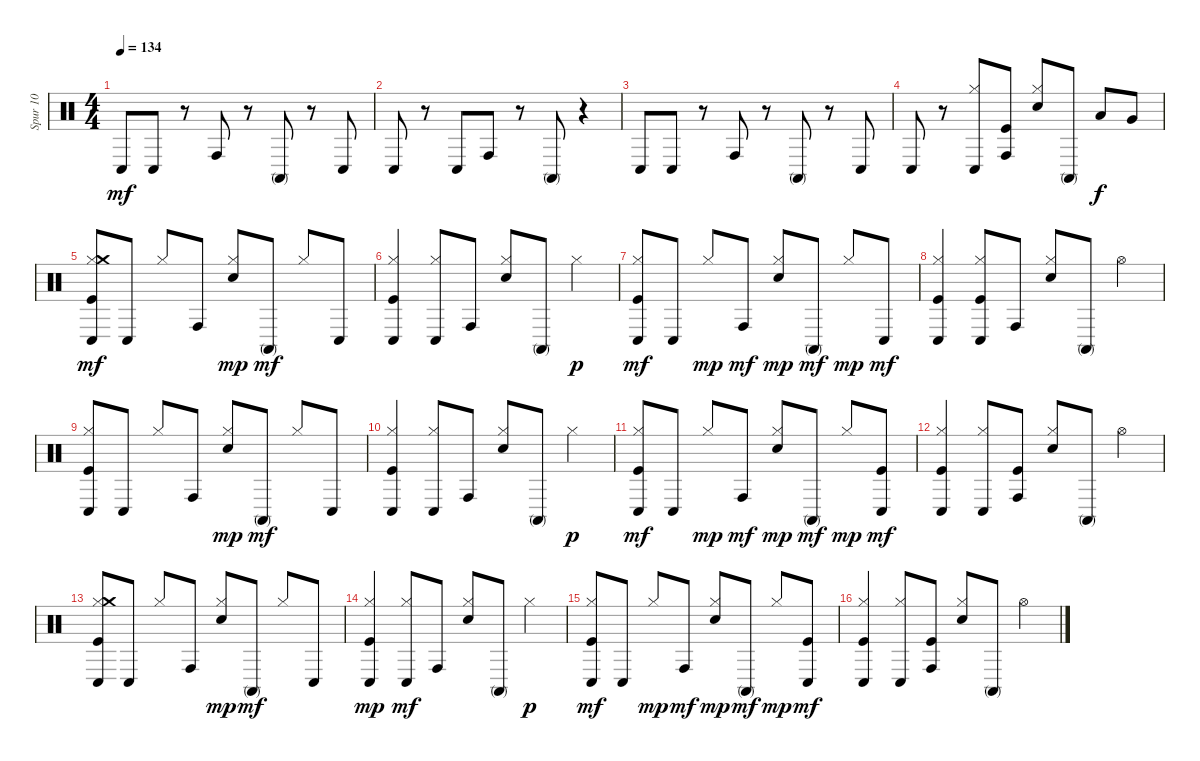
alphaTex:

\track ("Spur 10" "Spur 10") {instrument percussion}
\staff {score}
\articulation defaults
\ts (4 4)
\tempo 134
\clef neutral
\ks c "Conga low (hit)".8{dy mf} "Conga low (hit)".8
r.8 "Conga high (hit)".8 r.8 "Conga high (mute)".8 r.8 "Conga low (hit)".8 |
"Conga low (hit)".8 r.8 "Conga low (hit)".8 "Conga high (hit)".8 r.8 "Conga high (mute)".8 r.4 |
"Conga low (hit)".8 "Conga low (hit)".8 r.8 "Conga high (hit)".8 r.8 "Conga high (mute)".8 r.8 "Conga low (hit)".8 |
"Conga low (hit)".8 r.8 ("Conga low (hit)" "Hi-Hat (closed)").8 ("Conga high (hit)" "Kick (hit)").8 ("Hi-Hat (closed)" "Electric Snare (hit)").8 "Conga high (mute)".8 "Low Tom (hit)".8{dy f} "Very Low Tom (hit)".8 |
("Hi-Hat (closed)" "Kick (hit)" "Crash medium (hit)" "Conga low (hit)").8{dy mf} "Conga low (hit)".8 "Hi-Hat (closed)".8 "Conga high (hit)".8 ("Hi-Hat (closed)" "Electric Snare (hit)").8{dy mp} "Conga high (mute)".8{dy mf} "Hi-Hat (closed)".8 "Conga low (hit)".8 |
("Hi-Hat (closed)" "Kick (hit)" "Conga low (hit)").4 ("Hi-Hat (closed)" "Conga low (hit)").8 "Conga high (hit)".8 ("Hi-Hat (closed)" "Electric Snare (hit)").8 "Conga high (mute)".8 "Hi-Hat (closed)".4{dy p} |
("Hi-Hat (closed)" "Kick (hit)" "Conga low (hit)").8{dy mf} "Conga low (hit)".8 "Hi-Hat (closed)".8{dy mp} "Conga high (hit)".8{dy mf} ("Hi-Hat (closed)" "Electric Snare (hit)").8{dy mp} "Conga high (mute)".8{dy mf} "Hi-Hat (closed)".8{dy mp} "Conga low (hit)".8{dy mf} |
("Hi-Hat (closed)" "Kick (hit)" "Conga low (hit)").4 ("Hi-Hat (closed)" "Kick (hit)" "Conga low (hit)").8 "Conga high (hit)".8 ("Hi-Hat (closed)" "Electric Snare (hit)").8 "Conga high (mute)".8 "Hi-Hat (open)".4 |
("Kick (hit)" "Hi-Hat (closed)" "Conga low (hit)").8 "Conga low (hit)".8 "Hi-Hat (closed)".8 "Conga high (hit)".8 ("Electric Snare (hit)" "Hi-Hat (closed)").8{dy mp} "Conga high (mute)".8{dy mf} "Hi-Hat (closed)".8 "Conga low (hit)".8 |
("Kick (hit)" "Hi-Hat (closed)" "Conga low (hit)").4 ("Hi-Hat (closed)" "Conga low (hit)").8 "Conga high (hit)".8 ("Electric Snare (hit)" "Hi-Hat (closed)").8 "Conga high (mute)".8 "Hi-Hat (closed)".4{dy p} |
("Kick (hit)" "Hi-Hat (closed)" "Conga low (hit)").8{dy mf} "Conga low (hit)".8 "Hi-Hat (closed)".8{dy mp} "Conga high (hit)".8{dy mf} ("Electric Snare (hit)" "Hi-Hat (closed)").8{dy mp} "Conga high (mute)".8{dy mf} "Hi-Hat (closed)".8{dy mp} ("Kick (hit)" "Conga low (hit)").8{dy mf} |
("Kick (hit)" "Hi-Hat (closed)" "Conga low (hit)").4 ("Hi-Hat (closed)" "Conga low (hit)").8 ("Kick (hit)" "Conga high (hit)").8 ("Electric Snare (hit)" "Hi-Hat (closed)").8 "Conga high (mute)".8 "Hi-Hat (open)".4 |
("Conga low (hit)" "Hi-Hat (closed)" "Crash medium (hit)" "Kick (hit)").8 "Conga low (hit)".8 "Hi-Hat (closed)".8 "Conga high (hit)".8 ("Hi-Hat (closed)" "Electric Snare (hit)").8{dy mp} "Conga high (mute)".8{dy mf} "Hi-Hat (closed)".8 "Conga low (hit)".8 |
("Conga low (hit)" "Hi-Hat (closed)" "Kick (hit)").4{dy mp} ("Conga low (hit)" "Hi-Hat (closed)").8{dy mf} "Conga high (hit)".8 ("Hi-Hat (closed)" "Electric Snare (hit)").8 "Conga high (mute)".8 "Hi-Hat (closed)".4{dy p} |
("Hi-Hat (closed)" "Kick (hit)" "Conga low (hit)").8{dy mf} "Conga low (hit)".8 "Hi-Hat (closed)".8{dy mp} "Conga high (hit)".8{dy mf} ("Hi-Hat (closed)" "Electric Snare (hit)").8{dy mp} "Conga high (mute)".8{dy mf} "Hi-Hat (closed)".8{dy mp} ("Kick (hit)" "Conga low (hit)").8{dy mf} |
("Kick (hit)" "Hi-Hat (closed)" "Conga low (hit)").4 ("Hi-Hat (closed)" "Conga low (hit)").8 ("Kick (hit)" "Conga high (hit)").8 ("Hi-Hat (closed)" "Electric Snare (hit)").8 "Conga high (mute)".8 "Hi-Hat (open)".4
